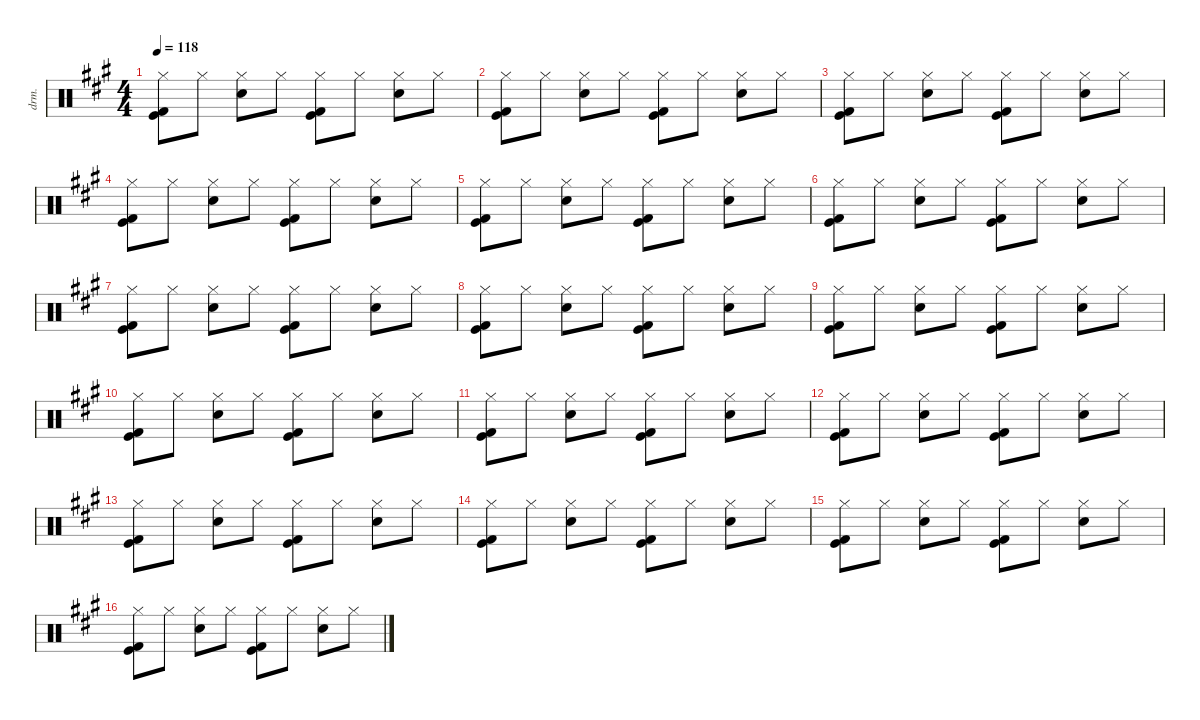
\defaultSystemsLayout 4
\hideDynamics
\bracketExtendMode nobrackets
\otherSystemsTrackNameOrientation horizontal
\track ("drums" "drm.") {instrument percussion}
\staff {score}
\articulation defaults
\ts (4 4)
\tempo 118
\clef neutral
\ks f#minor
("Hi-Hat (closed)"{acc forcenatural} "Kick (hit)"{acc forcenatural} "Kick (hit) 2"{acc forcenatural}).8{dy f} "Hi-Hat (closed)"{acc forcenatural}.8{dy mf} ("Hi-Hat (closed)"{acc forcenatural} "Snare (hit) 2"{acc forcenatural}).8{dy f} "Hi-Hat (closed)"{acc forcenatural}.8{dy mf} ("Hi-Hat (closed)"{acc forcenatural} "Kick (hit)"{acc forcenatural} "Kick (hit) 2"{acc forcenatural}).8{dy f} "Hi-Hat (closed)"{acc forcenatural}.8{dy mf} ("Hi-Hat (closed)"{acc forcenatural} "Snare (hit) 2"{acc forcenatural}).8{dy f} "Hi-Hat (closed)"{acc forcenatural}.8{dy mf} |
("Hi-Hat (closed)"{acc forcenatural} "Kick (hit)"{acc forcenatural} "Kick (hit) 2"{acc forcenatural}).8{dy f} "Hi-Hat (closed)"{acc forcenatural}.8{dy mf} ("Hi-Hat (closed)"{acc forcenatural} "Snare (hit) 2"{acc forcenatural}).8{dy f} "Hi-Hat (closed)"{acc forcenatural}.8{dy mf} ("Hi-Hat (closed)"{acc forcenatural} "Kick (hit)"{acc forcenatural} "Kick (hit) 2"{acc forcenatural}).8{dy f} "Hi-Hat (closed)"{acc forcenatural}.8{dy mf} ("Hi-Hat (closed)"{acc forcenatural} "Snare (hit) 2"{acc forcenatural}).8{dy f} "Hi-Hat (closed)"{acc forcenatural}.8{dy mf} |
("Hi-Hat (closed)"{acc forcenatural} "Kick (hit)"{acc forcenatural} "Kick (hit) 2"{acc forcenatural}).8{dy f} "Hi-Hat (closed)"{acc forcenatural}.8{dy mf} ("Hi-Hat (closed)"{acc forcenatural} "Snare (hit) 2"{acc forcenatural}).8{dy f} "Hi-Hat (closed)"{acc forcenatural}.8{dy mf} ("Hi-Hat (closed)"{acc forcenatural} "Kick (hit)"{acc forcenatural} "Kick (hit) 2"{acc forcenatural}).8{dy f} "Hi-Hat (closed)"{acc forcenatural}.8{dy mf} ("Hi-Hat (closed)"{acc forcenatural} "Snare (hit) 2"{acc forcenatural}).8{dy f} "Hi-Hat (closed)"{acc forcenatural}.8{dy mf} |
("Hi-Hat (closed)"{acc forcenatural} "Kick (hit)"{acc forcenatural} "Kick (hit) 2"{acc forcenatural}).8{dy f} "Hi-Hat (closed)"{acc forcenatural}.8{dy mf} ("Hi-Hat (closed)"{acc forcenatural} "Snare (hit) 2"{acc forcenatural}).8{dy f} "Hi-Hat (closed)"{acc forcenatural}.8{dy mf} ("Hi-Hat (closed)"{acc forcenatural} "Kick (hit)"{acc forcenatural} "Kick (hit) 2"{acc forcenatural}).8{dy f} "Hi-Hat (closed)"{acc forcenatural}.8{dy mf} ("Hi-Hat (closed)"{acc forcenatural} "Snare (hit) 2"{acc forcenatural}).8{dy f} "Hi-Hat (closed)"{acc forcenatural}.8{dy mf} |
("Hi-Hat (closed)"{acc forcenatural} "Kick (hit)"{acc forcenatural} "Kick (hit) 2"{acc forcenatural}).8{dy f} "Hi-Hat (closed)"{acc forcenatural}.8{dy mf} ("Hi-Hat (closed)"{acc forcenatural} "Snare (hit) 2"{acc forcenatural}).8{dy f} "Hi-Hat (closed)"{acc forcenatural}.8{dy mf} ("Hi-Hat (closed)"{acc forcenatural} "Kick (hit)"{acc forcenatural} "Kick (hit) 2"{acc forcenatural}).8{dy f} "Hi-Hat (closed)"{acc forcenatural}.8{dy mf} ("Hi-Hat (closed)"{acc forcenatural} "Snare (hit) 2"{acc forcenatural}).8{dy f} "Hi-Hat (closed)"{acc forcenatural}.8{dy mf} |
("Hi-Hat (closed)"{acc forcenatural} "Kick (hit)"{acc forcenatural} "Kick (hit) 2"{acc forcenatural}).8{dy f} "Hi-Hat (closed)"{acc forcenatural}.8{dy mf} ("Hi-Hat (closed)"{acc forcenatural} "Snare (hit) 2"{acc forcenatural}).8{dy f} "Hi-Hat (closed)"{acc forcenatural}.8{dy mf} ("Hi-Hat (closed)"{acc forcenatural} "Kick (hit)"{acc forcenatural} "Kick (hit) 2"{acc forcenatural}).8{dy f} "Hi-Hat (closed)"{acc forcenatural}.8{dy mf} ("Hi-Hat (closed)"{acc forcenatural} "Snare (hit) 2"{acc forcenatural}).8{dy f} "Hi-Hat (closed)"{acc forcenatural}.8{dy mf} |
("Hi-Hat (closed)"{acc forcenatural} "Kick (hit)"{acc forcenatural} "Kick (hit) 2"{acc forcenatural}).8{dy f} "Hi-Hat (closed)"{acc forcenatural}.8{dy mf} ("Hi-Hat (closed)"{acc forcenatural} "Snare (hit) 2"{acc forcenatural}).8{dy f} "Hi-Hat (closed)"{acc forcenatural}.8{dy mf} ("Hi-Hat (closed)"{acc forcenatural} "Kick (hit)"{acc forcenatural} "Kick (hit) 2"{acc forcenatural}).8{dy f} "Hi-Hat (closed)"{acc forcenatural}.8{dy mf} ("Hi-Hat (closed)"{acc forcenatural} "Snare (hit) 2"{acc forcenatural}).8{dy f} "Hi-Hat (closed)"{acc forcenatural}.8{dy mf} |
("Hi-Hat (closed)"{acc forcenatural} "Kick (hit)"{acc forcenatural} "Kick (hit) 2"{acc forcenatural}).8{dy f} "Hi-Hat (closed)"{acc forcenatural}.8{dy mf} ("Hi-Hat (closed)"{acc forcenatural} "Snare (hit) 2"{acc forcenatural}).8{dy f} "Hi-Hat (closed)"{acc forcenatural}.8{dy mf} ("Hi-Hat (closed)"{acc forcenatural} "Kick (hit)"{acc forcenatural} "Kick (hit) 2"{acc forcenatural}).8{dy f} "Hi-Hat (closed)"{acc forcenatural}.8{dy mf} ("Hi-Hat (closed)"{acc forcenatural} "Snare (hit) 2"{acc forcenatural}).8{dy f} "Hi-Hat (closed)"{acc forcenatural}.8{dy mf} |
("Hi-Hat (closed)"{acc forcenatural} "Kick (hit)"{acc forcenatural} "Kick (hit) 2"{acc forcenatural}).8{dy f} "Hi-Hat (closed)"{acc forcenatural}.8{dy mf} ("Hi-Hat (closed)"{acc forcenatural} "Snare (hit) 2"{acc forcenatural}).8{dy f} "Hi-Hat (closed)"{acc forcenatural}.8{dy mf} ("Hi-Hat (closed)"{acc forcenatural} "Kick (hit)"{acc forcenatural} "Kick (hit) 2"{acc forcenatural}).8{dy f} "Hi-Hat (closed)"{acc forcenatural}.8{dy mf} ("Hi-Hat (closed)"{acc forcenatural} "Snare (hit) 2"{acc forcenatural}).8{dy f} "Hi-Hat (closed)"{acc forcenatural}.8{dy mf} |
("Hi-Hat (closed)"{acc forcenatural} "Kick (hit)"{acc forcenatural} "Kick (hit) 2"{acc forcenatural}).8{dy f} "Hi-Hat (closed)"{acc forcenatural}.8{dy mf} ("Hi-Hat (closed)"{acc forcenatural} "Snare (hit) 2"{acc forcenatural}).8{dy f} "Hi-Hat (closed)"{acc forcenatural}.8{dy mf} ("Hi-Hat (closed)"{acc forcenatural} "Kick (hit)"{acc forcenatural} "Kick (hit) 2"{acc forcenatural}).8{dy f} "Hi-Hat (closed)"{acc forcenatural}.8{dy mf} ("Hi-Hat (closed)"{acc forcenatural} "Snare (hit) 2"{acc forcenatural}).8{dy f} "Hi-Hat (closed)"{acc forcenatural}.8{dy mf} |
("Hi-Hat (closed)"{acc forcenatural} "Kick (hit)"{acc forcenatural} "Kick (hit) 2"{acc forcenatural}).8{dy f} "Hi-Hat (closed)"{acc forcenatural}.8{dy mf} ("Hi-Hat (closed)"{acc forcenatural} "Snare (hit) 2"{acc forcenatural}).8{dy f} "Hi-Hat (closed)"{acc forcenatural}.8{dy mf} ("Hi-Hat (closed)"{acc forcenatural} "Kick (hit)"{acc forcenatural} "Kick (hit) 2"{acc forcenatural}).8{dy f} "Hi-Hat (closed)"{acc forcenatural}.8{dy mf} ("Hi-Hat (closed)"{acc forcenatural} "Snare (hit) 2"{acc forcenatural}).8{dy f} "Hi-Hat (closed)"{acc forcenatural}.8{dy mf} |
("Hi-Hat (closed)"{acc forcenatural} "Kick (hit)"{acc forcenatural} "Kick (hit) 2"{acc forcenatural}).8{dy f} "Hi-Hat (closed)"{acc forcenatural}.8{dy mf} ("Hi-Hat (closed)"{acc forcenatural} "Snare (hit) 2"{acc forcenatural}).8{dy f} "Hi-Hat (closed)"{acc forcenatural}.8{dy mf} ("Hi-Hat (closed)"{acc forcenatural} "Kick (hit)"{acc forcenatural} "Kick (hit) 2"{acc forcenatural}).8{dy f} "Hi-Hat (closed)"{acc forcenatural}.8{dy mf} ("Hi-Hat (closed)"{acc forcenatural} "Snare (hit) 2"{acc forcenatural}).8{dy f} "Hi-Hat (closed)"{acc forcenatural}.8{dy mf} |
("Hi-Hat (closed)"{acc forcenatural} "Kick (hit)"{acc forcenatural} "Kick (hit) 2"{acc forcenatural}).8{dy f} "Hi-Hat (closed)"{acc forcenatural}.8{dy mf} ("Hi-Hat (closed)"{acc forcenatural} "Snare (hit) 2"{acc forcenatural}).8{dy f} "Hi-Hat (closed)"{acc forcenatural}.8{dy mf} ("Hi-Hat (closed)"{acc forcenatural} "Kick (hit)"{acc forcenatural} "Kick (hit) 2"{acc forcenatural}).8{dy f} "Hi-Hat (closed)"{acc forcenatural}.8{dy mf} ("Hi-Hat (closed)"{acc forcenatural} "Snare (hit) 2"{acc forcenatural}).8{dy f} "Hi-Hat (closed)"{acc forcenatural}.8{dy mf} |
("Hi-Hat (closed)"{acc forcenatural} "Kick (hit)"{acc forcenatural} "Kick (hit) 2"{acc forcenatural}).8{dy f} "Hi-Hat (closed)"{acc forcenatural}.8{dy mf} ("Hi-Hat (closed)"{acc forcenatural} "Snare (hit) 2"{acc forcenatural}).8{dy f} "Hi-Hat (closed)"{acc forcenatural}.8{dy mf} ("Hi-Hat (closed)"{acc forcenatural} "Kick (hit)"{acc forcenatural} "Kick (hit) 2"{acc forcenatural}).8{dy f} "Hi-Hat (closed)"{acc forcenatural}.8{dy mf} ("Hi-Hat (closed)"{acc forcenatural} "Snare (hit) 2"{acc forcenatural}).8{dy f} "Hi-Hat (closed)"{acc forcenatural}.8{dy mf} |
("Hi-Hat (closed)"{acc forcenatural} "Kick (hit)"{acc forcenatural} "Kick (hit) 2"{acc forcenatural}).8{dy f} "Hi-Hat (closed)"{acc forcenatural}.8{dy mf} ("Hi-Hat (closed)"{acc forcenatural} "Snare (hit) 2"{acc forcenatural}).8{dy f} "Hi-Hat (closed)"{acc forcenatural}.8{dy mf} ("Hi-Hat (closed)"{acc forcenatural} "Kick (hit)"{acc forcenatural} "Kick (hit) 2"{acc forcenatural}).8{dy f} "Hi-Hat (closed)"{acc forcenatural}.8{dy mf} ("Hi-Hat (closed)"{acc forcenatural} "Snare (hit) 2"{acc forcenatural}).8{dy f} "Hi-Hat (closed)"{acc forcenatural}.8{dy mf} |
("Hi-Hat (closed)"{acc forcenatural} "Kick (hit)"{acc forcenatural} "Kick (hit) 2"{acc forcenatural}).8{dy f} "Hi-Hat (closed)"{acc forcenatural}.8{dy mf} ("Hi-Hat (closed)"{acc forcenatural} "Snare (hit) 2"{acc forcenatural}).8{dy f} "Hi-Hat (closed)"{acc forcenatural}.8{dy mf} ("Hi-Hat (closed)"{acc forcenatural} "Kick (hit)"{acc forcenatural} "Kick (hit) 2"{acc forcenatural}).8{dy f} "Hi-Hat (closed)"{acc forcenatural}.8{dy mf} ("Hi-Hat (closed)"{acc forcenatural} "Snare (hit) 2"{acc forcenatural}).8{dy f} "Hi-Hat (closed)"{acc forcenatural}.8{dy mf}
